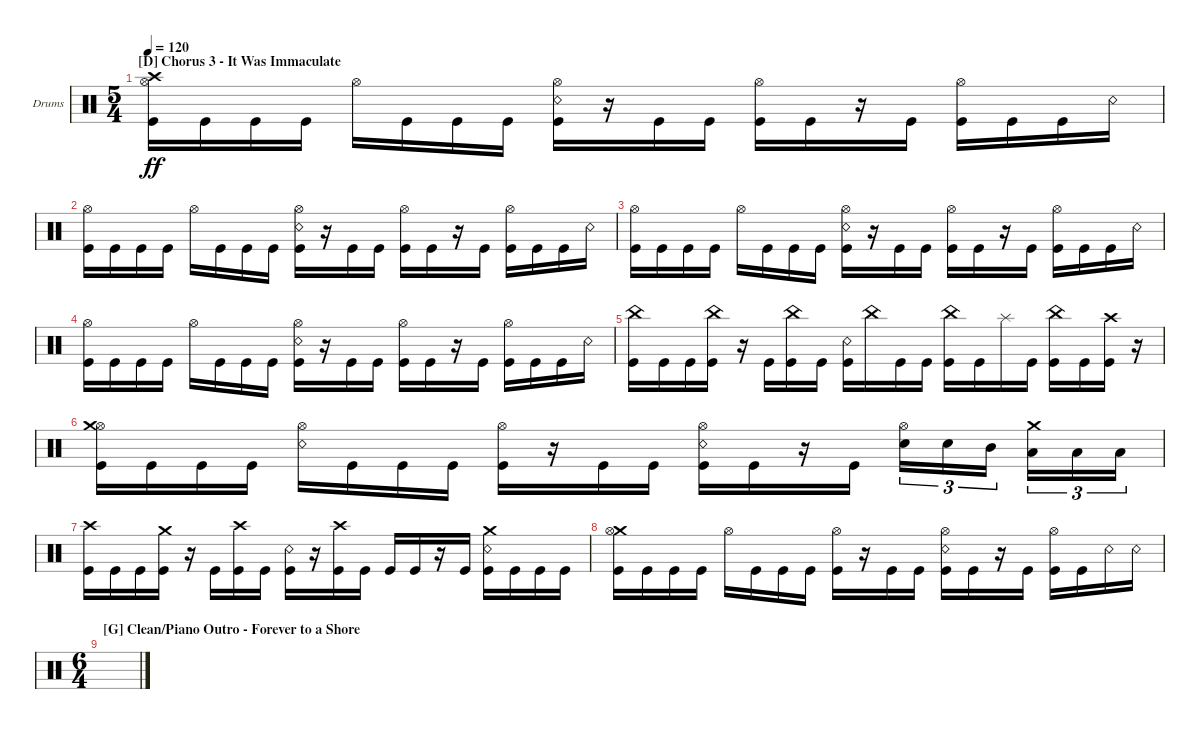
\defaultSystemsLayout 4
\bracketExtendMode groupsimilarinstruments
\firstSystemTrackNameOrientation horizontal
\otherSystemsTrackNameOrientation horizontal
\track ("Drumkit" "Drums") {instrument percussion}
\staff {score}
\articulation defaults
\ts (5 4)
\section ("D" "Chorus 3 - It Was Immaculate")
\tempo 120
\clef neutral
\ks c
("Crash high (hit)" "Hi-Hat (open)" "Kick (hit)").16{dy ff} "Kick (hit)".16 "Kick (hit)".16 "Kick (hit)".16 "Hi-Hat (open)".16 "Kick (hit)".16 "Kick (hit)".16 "Kick (hit)".16 ("Hi-Hat (open)" "Snare (rim shot)" "Kick (hit)").16 r.16 "Kick (hit)".16 "Kick (hit)".16 ("Hi-Hat (open)" "Kick (hit)").16 "Kick (hit)".16 r.16 "Kick (hit)".16 ("Hi-Hat (open)" "Kick (hit)").16 "Kick (hit)".16 "Kick (hit)".16 "Snare (rim shot)".16 |
("Hi-Hat (open)" "Kick (hit)").16 "Kick (hit)".16 "Kick (hit)".16 "Kick (hit)".16 "Hi-Hat (open)".16 "Kick (hit)".16 "Kick (hit)".16 "Kick (hit)".16 ("Hi-Hat (open)" "Snare (rim shot)" "Kick (hit)").16 r.16 "Kick (hit)".16 "Kick (hit)".16 ("Hi-Hat (open)" "Kick (hit)").16 "Kick (hit)".16 r.16 "Kick (hit)".16 ("Hi-Hat (open)" "Kick (hit)").16 "Kick (hit)".16 "Kick (hit)".16 "Snare (rim shot)".16 |
("Hi-Hat (open)" "Kick (hit)").16 "Kick (hit)".16 "Kick (hit)".16 "Kick (hit)".16 "Hi-Hat (open)".16 "Kick (hit)".16 "Kick (hit)".16 "Kick (hit)".16 ("Hi-Hat (open)" "Snare (rim shot)" "Kick (hit)").16 r.16 "Kick (hit)".16 "Kick (hit)".16 ("Hi-Hat (open)" "Kick (hit)").16 "Kick (hit)".16 r.16 "Kick (hit)".16 ("Hi-Hat (open)" "Kick (hit)").16 "Kick (hit)".16 "Kick (hit)".16 "Snare (rim shot)".16 |
("Hi-Hat (open)" "Kick (hit)").16 "Kick (hit)".16 "Kick (hit)".16 "Kick (hit)".16 "Hi-Hat (open)".16 "Kick (hit)".16 "Kick (hit)".16 "Kick (hit)".16 ("Hi-Hat (open)" "Snare (rim shot)" "Kick (hit)").16 r.16 "Kick (hit)".16 "Kick (hit)".16 ("Hi-Hat (open)" "Kick (hit)").16 "Kick (hit)".16 r.16 "Kick (hit)".16 ("Hi-Hat (open)" "Kick (hit)").16 "Kick (hit)".16 "Kick (hit)".16 "Snare (rim shot)".16 |
("China (hit)" "Kick (hit)").16 "Kick (hit)".16 "Kick (hit)".16 ("China (hit)" "Kick (hit)").16 r.16 "Kick (hit)".16 ("China (hit)" "Kick (hit)").16 "Kick (hit)".16 ("Kick (hit)" "Snare (rim shot)").16 "China (hit)".16 "Kick (hit)".16 "Kick (hit)".16 ("China (hit)" "Kick (hit)").16 "Kick (hit)".16 "Splash (hit)".16 "Kick (hit)".16 ("China (hit)" "Kick (hit)").16 "Kick (hit)".16 ("Crash high (hit)" "Kick (hit)").16 r.16 |
("Hi-Hat (open)" "Crash medium (hit)" "Kick (hit)").16 "Kick (hit)".16 "Kick (hit)".16 "Kick (hit)".16 ("Hi-Hat (open)" "Snare (rim shot)").16 "Kick (hit)".16 "Kick (hit)".16 "Kick (hit)".16 ("Hi-Hat (open)" "Kick (hit)").16 r.16 "Kick (hit)".16 "Kick (hit)".16 ("Hi-Hat (open)" "Kick (hit)" "Snare (rim shot)").16 "Kick (hit)".16 r.16 "Kick (hit)".16 ("Hi-Hat (open)" "Snare (hit) 2").16{tu (3 2)} "Snare (hit) 2".16{tu (3 2)} "Mid Tom (hit)".16{tu (3 2)} ("Crash medium (hit)" "Low Tom (hit)").16{tu (3 2)} "Low Tom (hit)".16{tu (3 2)} "Low Tom (hit)".16{tu (3 2)} |
("Crash high (hit)" "Kick (hit)").16 "Kick (hit)".16 "Kick (hit)".16 ("Crash medium (hit)" "Kick (hit)").16 r.16 "Kick (hit)".16 ("Crash high (hit)" "Kick (hit)").16 "Kick (hit)".16 ("Kick (hit)" "Snare (rim shot)").16 r.16 ("Kick (hit)" "Crash high (hit)").16 "Kick (hit)".16 "Kick (hit)".16 "Kick (hit)".16 r.16 "Kick (hit)".16 ("Kick (hit)" "Snare (rim shot)" "Crash medium (hit)").16 "Kick (hit)".16 "Kick (hit)".16 "Kick (hit)".16 |
("Kick (hit)" "Crash medium (hit)" "Hi-Hat (open)").16 "Kick (hit)".16 "Kick (hit)".16 "Kick (hit)".16 "Hi-Hat (open)".16 "Kick (hit)".16 "Kick (hit)".16 "Kick (hit)".16 ("Kick (hit)" "Hi-Hat (open)").16 r.16 "Kick (hit)".16 "Kick (hit)".16 ("Kick (hit)" "Hi-Hat (open)" "Snare (rim shot)").16 "Kick (hit)".16 r.16 "Kick (hit)".16 ("Kick (hit)" "Hi-Hat (open)").16 "Kick (hit)".16 "Snare (rim shot)".16 "Snare (rim shot)".16 |
\ts (6 4)
\section ("G" "Clean/Piano Outro - Forever to a Shore")
